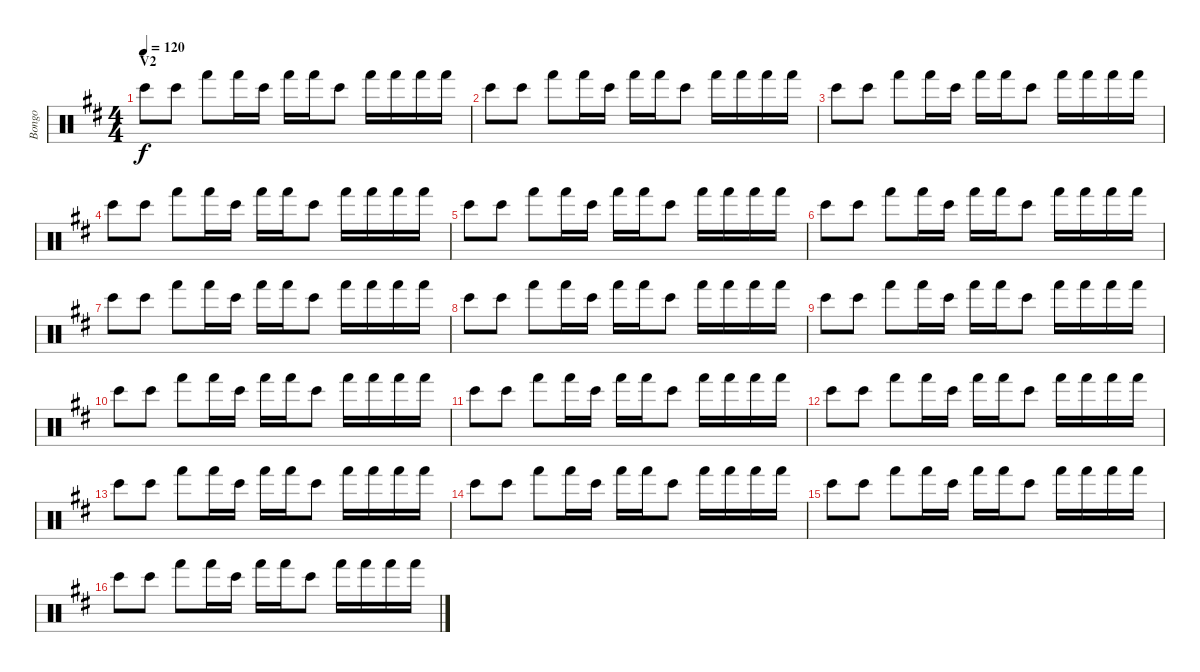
\track ("Bongo" "Bongo") {instrument percussion}
\staff {score}
\articulation defaults
\ts (4 4)
\section ("" "V2")
\tempo 120
\clef neutral
\ks d "Bongo High (hit)".8{dy f} "Bongo High (hit)".8 "Hand (hit)".8 "Hand (hit)".16 "Bongo High (hit)".16 "Hand (hit)".16 "Hand (hit)".16 "Bongo High (hit)".8 "Hand (hit)".16 "Hand (hit)".16 "Hand (hit)".16 "Hand (hit)".16
|
"Bongo High (hit)".8 "Bongo High (hit)".8 "Hand (hit)".8 "Hand (hit)".16 "Bongo High (hit)".16 "Hand (hit)".16 "Hand (hit)".16 "Bongo High (hit)".8 "Hand (hit)".16 "Hand (hit)".16 "Hand (hit)".16 "Hand (hit)".16 |
"Bongo High (hit)".8 "Bongo High (hit)".8 "Hand (hit)".8 "Hand (hit)".16 "Bongo High (hit)".16 "Hand (hit)".16 "Hand (hit)".16 "Bongo High (hit)".8 "Hand (hit)".16 "Hand (hit)".16 "Hand (hit)".16 "Hand (hit)".16 |
"Bongo High (hit)".8 "Bongo High (hit)".8 "Hand (hit)".8 "Hand (hit)".16 "Bongo High (hit)".16 "Hand (hit)".16 "Hand (hit)".16 "Bongo High (hit)".8 "Hand (hit)".16 "Hand (hit)".16 "Hand (hit)".16 "Hand (hit)".16 |
"Bongo High (hit)".8 "Bongo High (hit)".8 "Hand (hit)".8 "Hand (hit)".16 "Bongo High (hit)".16 "Hand (hit)".16 "Hand (hit)".16 "Bongo High (hit)".8 "Hand (hit)".16 "Hand (hit)".16 "Hand (hit)".16 "Hand (hit)".16 |
"Bongo High (hit)".8 "Bongo High (hit)".8 "Hand (hit)".8 "Hand (hit)".16 "Bongo High (hit)".16 "Hand (hit)".16 "Hand (hit)".16 "Bongo High (hit)".8 "Hand (hit)".16 "Hand (hit)".16 "Hand (hit)".16 "Hand (hit)".16 |
"Bongo High (hit)".8 "Bongo High (hit)".8 "Hand (hit)".8 "Hand (hit)".16 "Bongo High (hit)".16 "Hand (hit)".16 "Hand (hit)".16 "Bongo High (hit)".8 "Hand (hit)".16 "Hand (hit)".16 "Hand (hit)".16 "Hand (hit)".16 |
"Bongo High (hit)".8 "Bongo High (hit)".8 "Hand (hit)".8 "Hand (hit)".16 "Bongo High (hit)".16 "Hand (hit)".16 "Hand (hit)".16 "Bongo High (hit)".8 "Hand (hit)".16 "Hand (hit)".16 "Hand (hit)".16 "Hand (hit)".16 |
"Bongo High (hit)".8 "Bongo High (hit)".8 "Hand (hit)".8 "Hand (hit)".16 "Bongo High (hit)".16 "Hand (hit)".16 "Hand (hit)".16 "Bongo High (hit)".8 "Hand (hit)".16 "Hand (hit)".16 "Hand (hit)".16 "Hand (hit)".16 |
"Bongo High (hit)".8 "Bongo High (hit)".8 "Hand (hit)".8 "Hand (hit)".16 "Bongo High (hit)".16 "Hand (hit)".16 "Hand (hit)".16 "Bongo High (hit)".8 "Hand (hit)".16 "Hand (hit)".16 "Hand (hit)".16 "Hand (hit)".16 |
"Bongo High (hit)".8 "Bongo High (hit)".8 "Hand (hit)".8 "Hand (hit)".16 "Bongo High (hit)".16 "Hand (hit)".16 "Hand (hit)".16 "Bongo High (hit)".8 "Hand (hit)".16 "Hand (hit)".16 "Hand (hit)".16 "Hand (hit)".16 |
"Bongo High (hit)".8 "Bongo High (hit)".8 "Hand (hit)".8 "Hand (hit)".16 "Bongo High (hit)".16 "Hand (hit)".16 "Hand (hit)".16 "Bongo High (hit)".8 "Hand (hit)".16 "Hand (hit)".16 "Hand (hit)".16 "Hand (hit)".16 |
"Bongo High (hit)".8 "Bongo High (hit)".8 "Hand (hit)".8 "Hand (hit)".16 "Bongo High (hit)".16 "Hand (hit)".16 "Hand (hit)".16 "Bongo High (hit)".8 "Hand (hit)".16 "Hand (hit)".16 "Hand (hit)".16 "Hand (hit)".16 |
"Bongo High (hit)".8 "Bongo High (hit)".8 "Hand (hit)".8 "Hand (hit)".16 "Bongo High (hit)".16 "Hand (hit)".16 "Hand (hit)".16 "Bongo High (hit)".8 "Hand (hit)".16 "Hand (hit)".16 "Hand (hit)".16 "Hand (hit)".16 |
"Bongo High (hit)".8 "Bongo High (hit)".8 "Hand (hit)".8 "Hand (hit)".16 "Bongo High (hit)".16 "Hand (hit)".16 "Hand (hit)".16 "Bongo High (hit)".8 "Hand (hit)".16 "Hand (hit)".16 "Hand (hit)".16 "Hand (hit)".16 |
"Bongo High (hit)".8 "Bongo High (hit)".8 "Hand (hit)".8 "Hand (hit)".16 "Bongo High (hit)".16 "Hand (hit)".16 "Hand (hit)".16 "Bongo High (hit)".8 "Hand (hit)".16 "Hand (hit)".16 "Hand (hit)".16 "Hand (hit)".16
